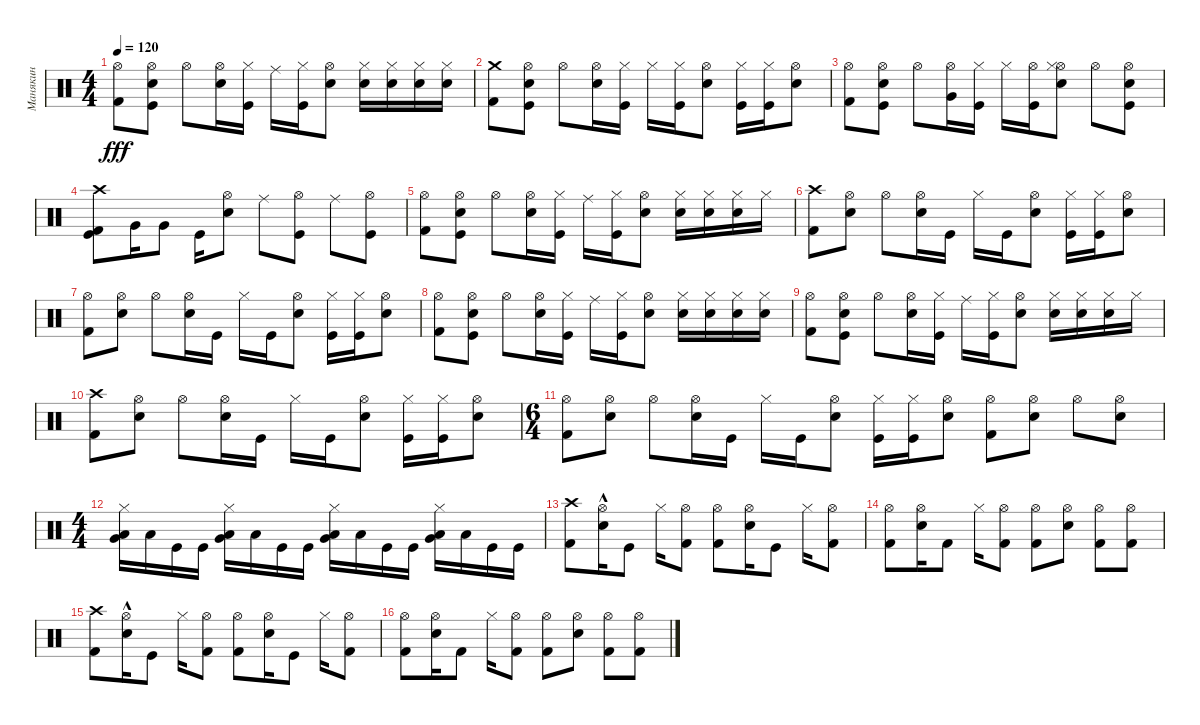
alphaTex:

\track ("Манякин" "Манякин") {instrument percussion}
\staff {score}
\articulation defaults
\ts (4 4)
\tempo 120
\clef neutral
\ks c
("Hi-Hat (open)" "Kick (hit) 2").8{dy fff} ("Hi-Hat (open)" "Snare (hit) 2" "Kick (hit)").8 "Hi-Hat (open)".8 ("Snare (hit) 2" "Hi-Hat (open)").16 ("Hi-Hat (closed)" "Kick (hit)").16 "Ride (middle)".16 ("Hi-Hat (closed)" "Kick (hit)").16 ("Hi-Hat (open)" "Snare (hit) 2").8 ("Hi-Hat (closed)" "Snare (hit) 2").16 ("Hi-Hat (closed)" "Snare (hit) 2").16 ("Hi-Hat (closed)" "Snare (hit) 2").16 ("Hi-Hat (closed)" "Snare (hit) 2").16 |
("Crash medium (hit)" "Kick (hit) 2").8 ("Hi-Hat (open)" "Snare (hit) 2" "Kick (hit)").8 "Hi-Hat (open)".8 ("Snare (hit) 2" "Hi-Hat (open)").16 ("Hi-Hat (closed)" "Kick (hit)").16 "Hi-Hat (closed)".16 ("Hi-Hat (closed)" "Kick (hit)").16 ("Hi-Hat (open)" "Snare (hit) 2").8 ("Hi-Hat (closed)" "Kick (hit)").16 ("Hi-Hat (closed)" "Kick (hit)").16 ("Hi-Hat (open)" "Snare (hit) 2").8 |
("Hi-Hat (open)" "Kick (hit) 2").8 ("Hi-Hat (open)" "Snare (hit) 2" "Kick (hit)").8 "Hi-Hat (open)".8 ("Hi-Hat (open)" "Very Low Tom (hit)").16 ("Hi-Hat (closed)" "Kick (hit)").16 "Hi-Hat (closed)".16 ("Hi-Hat (open)" "Kick (hit)").16 ("Hi-Hat (open)" "Hi-Hat (closed)" "Snare (hit) 2").8 "Hi-Hat (open)".8 ("Hi-Hat (open)" "Snare (hit) 2" "Kick (hit)").8 |
("Crash high (hit)" "Kick (hit)" "Kick (hit) 2").8 "Very Low Tom (hit)".16 "Very Low Tom (hit)".8 "Kick (hit)".16 ("Hi-Hat (open)" "Snare (hit) 2").8 "Ride (middle)".8 ("Kick (hit)" "Hi-Hat (open)").8 "Ride (middle)".8 ("Kick (hit)" "Hi-Hat (open)").8 |
("Hi-Hat (open)" "Kick (hit) 2").8 ("Hi-Hat (open)" "Snare (hit) 2" "Kick (hit)").8 "Hi-Hat (open)".8 ("Snare (hit) 2" "Hi-Hat (open)").16 ("Hi-Hat (closed)" "Kick (hit)").16 "Ride (middle)".16 ("Hi-Hat (closed)" "Kick (hit)").16 ("Hi-Hat (open)" "Snare (hit) 2").8 ("Hi-Hat (closed)" "Snare (hit) 2").16 ("Hi-Hat (closed)" "Snare (hit) 2").16 ("Hi-Hat (closed)" "Snare (hit) 2").16 "Hi-Hat (closed)".16 |
("Crash high (hit)" "Kick (hit) 2").8 ("Hi-Hat (open)" "Snare (hit) 2").8 "Hi-Hat (open)".8 ("Hi-Hat (open)" "Snare (hit) 2").16 "Kick (hit)".16 "Hi-Hat (closed)".16 "Kick (hit)".16 ("Hi-Hat (open)" "Snare (hit) 2").8 ("Hi-Hat (closed)" "Kick (hit)").16 ("Hi-Hat (closed)" "Kick (hit)").16 ("Hi-Hat (open)" "Snare (hit) 2").8 |
("Hi-Hat (open)" "Kick (hit) 2").8 ("Hi-Hat (open)" "Snare (hit) 2").8 "Hi-Hat (open)".8 ("Hi-Hat (open)" "Snare (hit) 2").16 "Kick (hit)".16 "Hi-Hat (closed)".16 "Kick (hit)".16 ("Hi-Hat (open)" "Snare (hit) 2").8 ("Hi-Hat (closed)" "Kick (hit)").16 ("Hi-Hat (closed)" "Kick (hit)").16 ("Hi-Hat (open)" "Snare (hit) 2").8 |
("Hi-Hat (open)" "Kick (hit) 2").8 ("Hi-Hat (open)" "Snare (hit) 2" "Kick (hit)").8 "Hi-Hat (open)".8 ("Snare (hit) 2" "Hi-Hat (open)").16 ("Hi-Hat (closed)" "Kick (hit)").16 "Ride (middle)".16 ("Hi-Hat (closed)" "Kick (hit)").16 ("Hi-Hat (open)" "Snare (hit) 2").8 ("Hi-Hat (closed)" "Snare (hit) 2").16 ("Hi-Hat (closed)" "Snare (hit) 2").16 ("Hi-Hat (closed)" "Snare (hit) 2").16 ("Hi-Hat (closed)" "Snare (hit) 2").16 |
("Hi-Hat (open)" "Kick (hit) 2").8 ("Hi-Hat (open)" "Snare (hit) 2" "Kick (hit)").8 "Hi-Hat (open)".8 ("Snare (hit) 2" "Hi-Hat (open)").16 ("Hi-Hat (closed)" "Kick (hit)").16 "Ride (middle)".16 ("Hi-Hat (closed)" "Kick (hit)").16 ("Hi-Hat (open)" "Snare (hit) 2").8 ("Hi-Hat (closed)" "Snare (hit) 2").16 ("Hi-Hat (closed)" "Snare (hit) 2").16 ("Hi-Hat (closed)" "Snare (hit) 2").16 "Hi-Hat (closed)".16 |
("Crash high (hit)" "Kick (hit) 2").8 ("Hi-Hat (open)" "Snare (hit) 2").8 "Hi-Hat (open)".8 ("Hi-Hat (open)" "Snare (hit) 2").16 "Kick (hit)".16 "Hi-Hat (closed)".16 "Kick (hit)".16 ("Hi-Hat (open)" "Snare (hit) 2").8 ("Hi-Hat (closed)" "Kick (hit)").16 ("Hi-Hat (closed)" "Kick (hit)").16 ("Hi-Hat (open)" "Snare (hit) 2").8 |
\ts (6 4)
("Hi-Hat (open)" "Kick (hit) 2").8 ("Hi-Hat (open)" "Snare (hit) 2").8 "Hi-Hat (open)".8 ("Hi-Hat (open)" "Snare (hit) 2").16 "Kick (hit)".16 "Hi-Hat (closed)".16 "Kick (hit)".16 ("Hi-Hat (open)" "Snare (hit) 2").8 ("Hi-Hat (closed)" "Kick (hit)").16 ("Hi-Hat (closed)" "Kick (hit)").16 ("Hi-Hat (open)" "Snare (hit) 2").8 ("Hi-Hat (open)" "Kick (hit) 2").8 ("Hi-Hat (open)" "Snare (hit) 2").8 "Hi-Hat (open)".8 ("Hi-Hat (open)" "Snare (hit) 2").8 |
\ts (4 4)
("Hi-Hat (closed)" "Low Floor Tom (hit)" "Very Low Tom (hit)").16 "Low Floor Tom (hit)".16 "Kick (hit)".16 "Kick (hit)".16 ("Hi-Hat (closed)" "Low Floor Tom (hit)" "Very Low Tom (hit)").16 "Low Floor Tom (hit)".16 "Kick (hit)".16 "Kick (hit)".16 ("Hi-Hat (closed)" "Low Tom (hit)" "Very Low Tom (hit)").16 "Low Floor Tom (hit)".16 "Kick (hit)".16 "Kick (hit)".16 ("Hi-Hat (closed)" "Very Low Tom (hit)" "Low Tom (hit)").16 "Low Floor Tom (hit)".16 "Kick (hit)".16 "Kick (hit)".16 |
("Crash high (hit)" "Kick (hit) 2").8 ("Hi-Hat (open)"{hac} "Snare (hit) 2").16 "Kick (hit)".8 "Hi-Hat (closed)".16 ("Hi-Hat (open)" "Kick (hit) 2").8 ("Hi-Hat (open)" "Kick (hit) 2").8 ("Hi-Hat (open)" "Snare (hit) 2").16 "Kick (hit)".8 "Hi-Hat (closed)".16 ("Kick (hit) 2" "Hi-Hat (open)").8 |
("Hi-Hat (open)" "Kick (hit) 2").8 ("Hi-Hat (open)" "Snare (hit) 2").16 "Kick (hit) 2".8 "Hi-Hat (closed)".16 ("Hi-Hat (open)" "Kick (hit) 2").8 ("Kick (hit) 2" "Hi-Hat (open)").8 ("Hi-Hat (open)" "Snare (hit) 2").8 ("Hi-Hat (open)" "Kick (hit) 2").8 ("Hi-Hat (open)" "Kick (hit) 2").8 |
("Crash high (hit)" "Kick (hit) 2").8 ("Hi-Hat (open)"{hac} "Snare (hit) 2").16 "Kick (hit)".8 "Hi-Hat (closed)".16 ("Hi-Hat (open)" "Kick (hit) 2").8 ("Hi-Hat (open)" "Kick (hit) 2").8 ("Hi-Hat (open)" "Snare (hit) 2").16 "Kick (hit)".8 "Hi-Hat (closed)".16 ("Kick (hit) 2" "Hi-Hat (open)").8 |
("Hi-Hat (open)" "Kick (hit) 2").8 ("Hi-Hat (open)" "Snare (hit) 2").16 "Kick (hit) 2".8 "Hi-Hat (closed)".16 ("Hi-Hat (open)" "Kick (hit) 2").8 ("Kick (hit) 2" "Hi-Hat (open)").8 ("Hi-Hat (open)" "Snare (hit) 2").8 ("Hi-Hat (open)" "Kick (hit) 2").8 ("Hi-Hat (open)" "Kick (hit) 2").8
